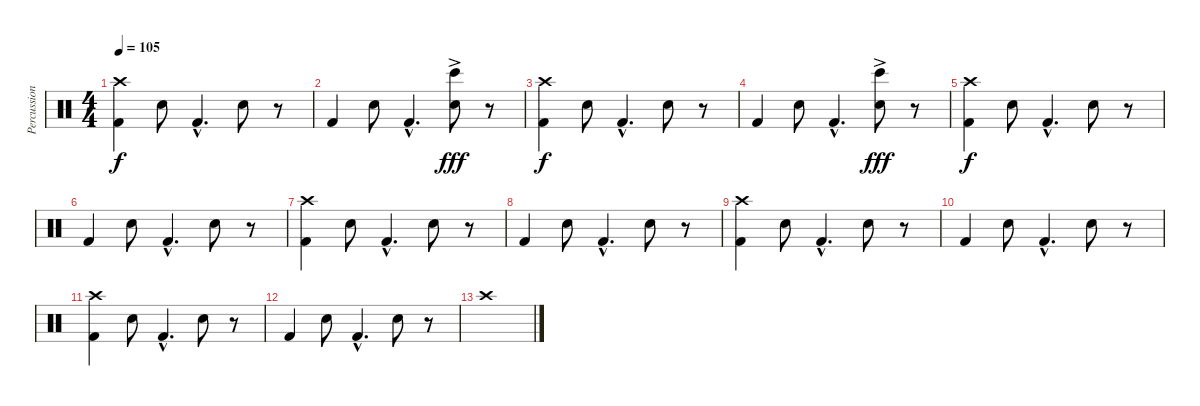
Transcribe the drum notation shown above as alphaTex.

\track ("Percussion" "Percussion") {instrument percussion}
\staff {score}
\articulation defaults
\ts (4 4)
\tempo 105
\clef neutral
\ks c
("Crash high (hit)" "Kick (hit) 2").4{dy f} "Hand Clap (hit)".8 "Kick (hit) 2"{hac}.4{d} "Hand Clap (hit)".8 r.8 |
"Kick (hit) 2".4 "Hand Clap (hit)".8 "Kick (hit) 2"{hac}.4{d} ("Bongo High (hit)"{ac} "Hand Clap (hit)"{ac}).8{dy fff} r.8 |
("Crash high (hit)" "Kick (hit) 2").4{dy f} "Hand Clap (hit)".8 "Kick (hit) 2"{hac}.4{d} "Hand Clap (hit)".8 r.8 |
"Kick (hit) 2".4 "Hand Clap (hit)".8 "Kick (hit) 2"{hac}.4{d} ("Bongo High (hit)"{ac} "Hand Clap (hit)"{ac}).8{dy fff} r.8 |
("Crash high (hit)" "Kick (hit) 2").4{dy f} "Hand Clap (hit)".8 "Kick (hit) 2"{hac}.4{d} "Hand Clap (hit)".8 r.8 |
"Kick (hit) 2".4 "Hand Clap (hit)".8 "Kick (hit) 2"{hac}.4{d} "Hand Clap (hit)".8 r.8 |
("Crash high (hit)" "Kick (hit) 2").4 "Hand Clap (hit)".8 "Kick (hit) 2"{hac}.4{d} "Hand Clap (hit)".8 r.8 |
"Kick (hit) 2".4 "Hand Clap (hit)".8 "Kick (hit) 2"{hac}.4{d} "Hand Clap (hit)".8 r.8 |
("Crash high (hit)" "Kick (hit) 2").4 "Hand Clap (hit)".8 "Kick (hit) 2"{hac}.4{d} "Hand Clap (hit)".8 r.8 |
"Kick (hit) 2".4 "Hand Clap (hit)".8 "Kick (hit) 2"{hac}.4{d} "Hand Clap (hit)".8 r.8 |
("Crash high (hit)" "Kick (hit) 2").4 "Hand Clap (hit)".8 "Kick (hit) 2"{hac}.4{d} "Hand Clap (hit)".8 r.8 |
"Kick (hit) 2".4 "Hand Clap (hit)".8 "Kick (hit) 2"{hac}.4{d} "Hand Clap (hit)".8 r.8 |
"Crash high (hit)".1
